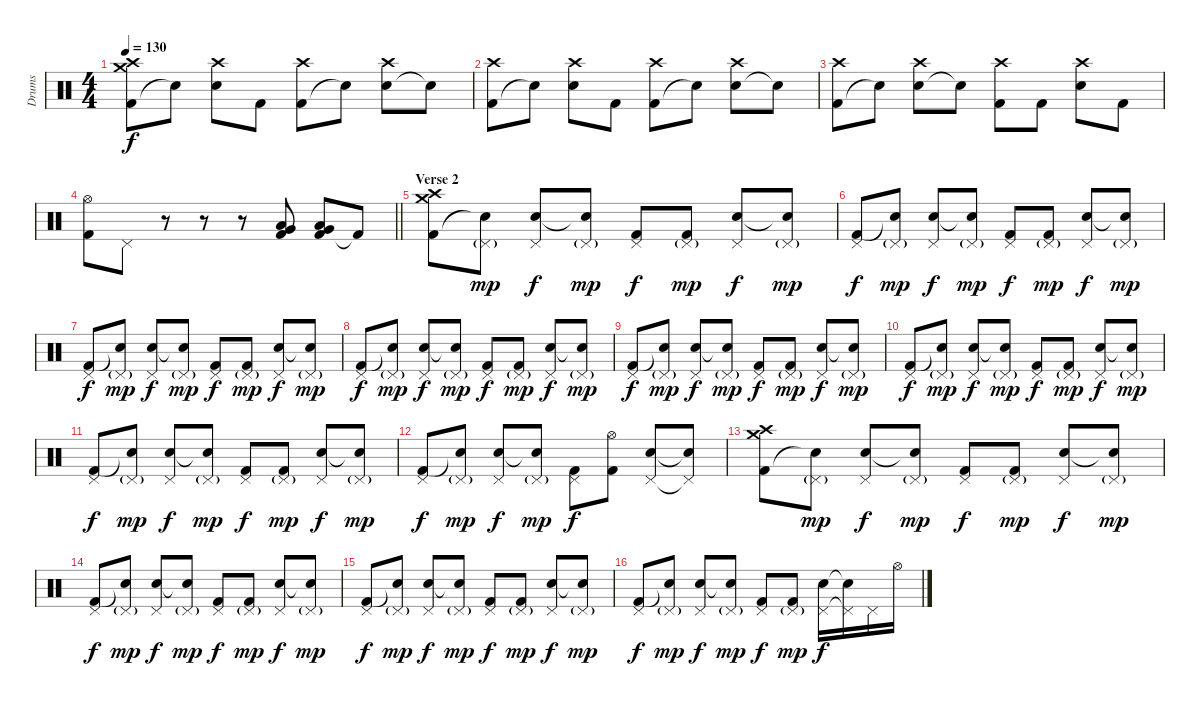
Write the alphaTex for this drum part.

\track ("Drums" "Drums") {instrument percussion}
\staff {score}
\articulation defaults
\ts (4 4)
\tempo 130
\clef neutral
\ks c
("Kick (hit) 2" "Crash medium (hit)" "Crash high (hit)").8{dy f} "Snare (hit)"{t}.8 ("Electric Snare (hit)" "Crash high (hit)").8 "Kick (hit) 2".8 ("Kick (hit) 2" "Crash high (hit)").8 "Snare (hit)"{t}.8 ("Electric Snare (hit)" "Crash high (hit)").8 "Snare (hit)"{t}.8 |
("Kick (hit) 2" "Crash high (hit)").8 "Snare (hit)"{t}.8 ("Electric Snare (hit)" "Crash high (hit)").8 "Kick (hit) 2".8 ("Kick (hit) 2" "Crash high (hit)").8 "Snare (hit)"{t}.8 ("Electric Snare (hit)" "Crash high (hit)").8 "Snare (hit)"{t}.8 |
("Kick (hit) 2" "Crash high (hit)").8 "Snare (hit)"{t}.8 ("Electric Snare (hit)" "Crash high (hit)").8 "Snare (hit)"{t}.8 ("Kick (hit) 2" "Crash high (hit)").8 "Kick (hit) 2".8 ("Electric Snare (hit)" "Crash high (hit)").8 "Kick (hit) 2".8 |
\barLineRight lightlight
("Kick (hit) 2" "Hi-Hat (open)").8 "Pedal Hi-Hat (hit)".8 r.8 r.8 r.8 ("Kick (hit) 2" "Very Low Tom (hit)" "Low Tom (hit)").8 ("Kick (hit) 2" "Low Floor Tom (hit)" "Very Low Tom (hit)").8 "Kick (hit) 2"{t}.8 |
\section ("" "Verse 2")
("Kick (hit) 2" "Crash medium (hit)" "Crash high (hit)").8 ("Snare (hit)"{t} "Pedal Hi-Hat (hit)"{g}).8{dy mp} ("Electric Snare (hit)" "Pedal Hi-Hat (hit)").8{dy f} ("Snare (hit)"{t} "Pedal Hi-Hat (hit)"{g}).8{dy mp} ("Kick (hit) 2" "Pedal Hi-Hat (hit)").8{dy f} ("Kick (hit) 2" "Pedal Hi-Hat (hit)"{g}).8{dy mp} ("Electric Snare (hit)" "Pedal Hi-Hat (hit)").8{dy f} ("Snare (hit)"{t} "Pedal Hi-Hat (hit)"{g}).8{dy mp} |
("Kick (hit) 2" "Pedal Hi-Hat (hit)").8{dy f} ("Snare (hit)"{t} "Pedal Hi-Hat (hit)"{g}).8{dy mp} ("Electric Snare (hit)" "Pedal Hi-Hat (hit)").8{dy f} ("Snare (hit)"{t} "Pedal Hi-Hat (hit)"{g}).8{dy mp} ("Kick (hit) 2" "Pedal Hi-Hat (hit)").8{dy f} ("Kick (hit) 2" "Pedal Hi-Hat (hit)"{g}).8{dy mp} ("Electric Snare (hit)" "Pedal Hi-Hat (hit)").8{dy f} ("Snare (hit)"{t} "Pedal Hi-Hat (hit)"{g}).8{dy mp} |
("Kick (hit) 2" "Pedal Hi-Hat (hit)").8{dy f} ("Snare (hit)"{t} "Pedal Hi-Hat (hit)"{g}).8{dy mp} ("Electric Snare (hit)" "Pedal Hi-Hat (hit)").8{dy f} ("Snare (hit)"{t} "Pedal Hi-Hat (hit)"{g}).8{dy mp} ("Kick (hit) 2" "Pedal Hi-Hat (hit)").8{dy f} ("Kick (hit) 2" "Pedal Hi-Hat (hit)"{g}).8{dy mp} ("Electric Snare (hit)" "Pedal Hi-Hat (hit)").8{dy f} ("Snare (hit)"{t} "Pedal Hi-Hat (hit)"{g}).8{dy mp} |
("Kick (hit) 2" "Pedal Hi-Hat (hit)").8{dy f} ("Snare (hit)"{t} "Pedal Hi-Hat (hit)"{g}).8{dy mp} ("Electric Snare (hit)" "Pedal Hi-Hat (hit)").8{dy f} ("Snare (hit)"{t} "Pedal Hi-Hat (hit)"{g}).8{dy mp} ("Kick (hit) 2" "Pedal Hi-Hat (hit)").8{dy f} ("Kick (hit) 2" "Pedal Hi-Hat (hit)"{g}).8{dy mp} ("Electric Snare (hit)" "Pedal Hi-Hat (hit)").8{dy f} ("Snare (hit)"{t} "Pedal Hi-Hat (hit)"{g}).8{dy mp} |
("Kick (hit) 2" "Pedal Hi-Hat (hit)").8{dy f} ("Snare (hit)"{t} "Pedal Hi-Hat (hit)"{g}).8{dy mp} ("Electric Snare (hit)" "Pedal Hi-Hat (hit)").8{dy f} ("Snare (hit)"{t} "Pedal Hi-Hat (hit)"{g}).8{dy mp} ("Kick (hit) 2" "Pedal Hi-Hat (hit)").8{dy f} ("Kick (hit) 2" "Pedal Hi-Hat (hit)"{g}).8{dy mp} ("Electric Snare (hit)" "Pedal Hi-Hat (hit)").8{dy f} ("Snare (hit)"{t} "Pedal Hi-Hat (hit)"{g}).8{dy mp} |
("Kick (hit) 2" "Pedal Hi-Hat (hit)").8{dy f} ("Snare (hit)"{t} "Pedal Hi-Hat (hit)"{g}).8{dy mp} ("Electric Snare (hit)" "Pedal Hi-Hat (hit)").8{dy f} ("Snare (hit)"{t} "Pedal Hi-Hat (hit)"{g}).8{dy mp} ("Kick (hit) 2" "Pedal Hi-Hat (hit)").8{dy f} ("Kick (hit) 2" "Pedal Hi-Hat (hit)"{g}).8{dy mp} ("Electric Snare (hit)" "Pedal Hi-Hat (hit)").8{dy f} ("Snare (hit)"{t} "Pedal Hi-Hat (hit)"{g}).8{dy mp} |
("Kick (hit) 2" "Pedal Hi-Hat (hit)").8{dy f} ("Snare (hit)"{t} "Pedal Hi-Hat (hit)"{g}).8{dy mp} ("Electric Snare (hit)" "Pedal Hi-Hat (hit)").8{dy f} ("Snare (hit)"{t} "Pedal Hi-Hat (hit)"{g}).8{dy mp} ("Kick (hit) 2" "Pedal Hi-Hat (hit)").8{dy f} ("Kick (hit) 2" "Pedal Hi-Hat (hit)"{g}).8{dy mp} ("Electric Snare (hit)" "Pedal Hi-Hat (hit)").8{dy f} ("Snare (hit)"{t} "Pedal Hi-Hat (hit)"{g}).8{dy mp} |
("Kick (hit) 2" "Pedal Hi-Hat (hit)").8{dy f} ("Snare (hit)"{t} "Pedal Hi-Hat (hit)"{g}).8{dy mp} ("Electric Snare (hit)" "Pedal Hi-Hat (hit)").8{dy f} ("Snare (hit)"{t} "Pedal Hi-Hat (hit)"{g}).8{dy mp} ("Kick (hit) 2" "Pedal Hi-Hat (hit)").8{dy f} ("Kick (hit) 2" "Hi-Hat (open)").8 ("Electric Snare (hit)" "Pedal Hi-Hat (hit)").8 ("Snare (hit)"{t} "Pedal Hi-Hat (hit)"{t}).8 |
("Kick (hit) 2" "Crash medium (hit)" "Crash high (hit)").8 ("Snare (hit)"{t} "Pedal Hi-Hat (hit)"{g}).8{dy mp} ("Electric Snare (hit)" "Pedal Hi-Hat (hit)").8{dy f} ("Snare (hit)"{t} "Pedal Hi-Hat (hit)"{g}).8{dy mp} ("Kick (hit) 2" "Pedal Hi-Hat (hit)").8{dy f} ("Kick (hit) 2" "Pedal Hi-Hat (hit)"{g}).8{dy mp} ("Electric Snare (hit)" "Pedal Hi-Hat (hit)").8{dy f} ("Snare (hit)"{t} "Pedal Hi-Hat (hit)"{g}).8{dy mp} |
("Kick (hit) 2" "Pedal Hi-Hat (hit)").8{dy f} ("Snare (hit)"{t} "Pedal Hi-Hat (hit)"{g}).8{dy mp} ("Electric Snare (hit)" "Pedal Hi-Hat (hit)").8{dy f} ("Snare (hit)"{t} "Pedal Hi-Hat (hit)"{g}).8{dy mp} ("Kick (hit) 2" "Pedal Hi-Hat (hit)").8{dy f} ("Kick (hit) 2" "Pedal Hi-Hat (hit)"{g}).8{dy mp} ("Electric Snare (hit)" "Pedal Hi-Hat (hit)").8{dy f} ("Snare (hit)"{t} "Pedal Hi-Hat (hit)"{g}).8{dy mp} |
("Kick (hit) 2" "Pedal Hi-Hat (hit)").8{dy f} ("Snare (hit)"{t} "Pedal Hi-Hat (hit)"{g}).8{dy mp} ("Electric Snare (hit)" "Pedal Hi-Hat (hit)").8{dy f} ("Snare (hit)"{t} "Pedal Hi-Hat (hit)"{g}).8{dy mp} ("Kick (hit) 2" "Pedal Hi-Hat (hit)").8{dy f} ("Kick (hit) 2" "Pedal Hi-Hat (hit)"{g}).8{dy mp} ("Electric Snare (hit)" "Pedal Hi-Hat (hit)").8{dy f} ("Snare (hit)"{t} "Pedal Hi-Hat (hit)"{g}).8{dy mp} |
("Kick (hit) 2" "Pedal Hi-Hat (hit)").8{dy f} ("Snare (hit)"{t} "Pedal Hi-Hat (hit)"{g}).8{dy mp} ("Electric Snare (hit)" "Pedal Hi-Hat (hit)").8{dy f} ("Snare (hit)"{t} "Pedal Hi-Hat (hit)"{g}).8{dy mp} ("Kick (hit) 2" "Pedal Hi-Hat (hit)").8{dy f} ("Kick (hit) 2" "Pedal Hi-Hat (hit)"{g}).8{dy mp} ("Electric Snare (hit)" "Pedal Hi-Hat (hit)").16{dy f} ("Snare (hit)"{t} "Pedal Hi-Hat (hit)"{t}).16 "Pedal Hi-Hat (hit)".16 "Hi-Hat (open)".16
